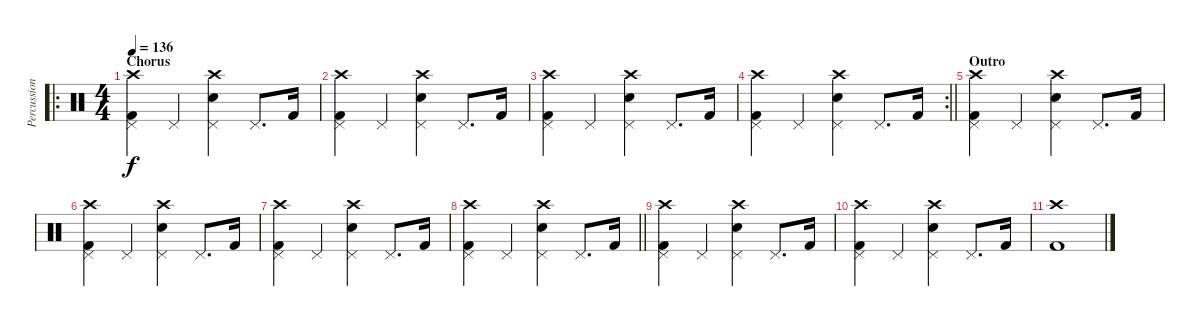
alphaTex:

\track ("Percussion" "Percussion") {instrument percussion}
\staff
\articulation defaults
\ro
\ts (4 4)
\section ("" "Chorus")
\tempo 136
\clef neutral
\ks c
("Crash high (hit)" "Pedal Hi-Hat (hit)" "Kick (hit) 2").4{dy f} "Pedal Hi-Hat (hit)".4 ("Crash high (hit)" "Snare (hit) 2" "Pedal Hi-Hat (hit)").4 "Pedal Hi-Hat (hit)".8{d} "Kick (hit) 2".16 |
("Crash high (hit)" "Pedal Hi-Hat (hit)" "Kick (hit) 2").4 "Pedal Hi-Hat (hit)".4 ("Crash high (hit)" "Snare (hit) 2" "Pedal Hi-Hat (hit)").4 "Pedal Hi-Hat (hit)".8{d} "Kick (hit) 2".16 |
("Crash high (hit)" "Pedal Hi-Hat (hit)" "Kick (hit) 2").4 "Pedal Hi-Hat (hit)".4 ("Crash high (hit)" "Snare (hit) 2" "Pedal Hi-Hat (hit)").4 "Pedal Hi-Hat (hit)".8{d} "Kick (hit) 2".16 |
\rc 2
\barLineRight lightlight
("Crash high (hit)" "Pedal Hi-Hat (hit)" "Kick (hit) 2").4 "Pedal Hi-Hat (hit)".4 ("Crash high (hit)" "Snare (hit) 2" "Pedal Hi-Hat (hit)").4 "Pedal Hi-Hat (hit)".8{d} "Kick (hit) 2".16 |
\section ("" "Outro")
("Crash high (hit)" "Pedal Hi-Hat (hit)" "Kick (hit) 2").4 "Pedal Hi-Hat (hit)".4 ("Crash high (hit)" "Snare (hit) 2" "Pedal Hi-Hat (hit)").4 "Pedal Hi-Hat (hit)".8{d} "Kick (hit) 2".16 |
("Crash high (hit)" "Pedal Hi-Hat (hit)" "Kick (hit) 2").4 "Pedal Hi-Hat (hit)".4 ("Crash high (hit)" "Snare (hit) 2" "Pedal Hi-Hat (hit)").4 "Pedal Hi-Hat (hit)".8{d} "Kick (hit) 2".16 |
("Crash high (hit)" "Pedal Hi-Hat (hit)" "Kick (hit) 2").4 "Pedal Hi-Hat (hit)".4 ("Crash high (hit)" "Snare (hit) 2" "Pedal Hi-Hat (hit)").4 "Pedal Hi-Hat (hit)".8{d} "Kick (hit) 2".16 |
\barLineRight lightlight
("Crash high (hit)" "Pedal Hi-Hat (hit)" "Kick (hit) 2").4 "Pedal Hi-Hat (hit)".4 ("Crash high (hit)" "Snare (hit) 2" "Pedal Hi-Hat (hit)").4 "Pedal Hi-Hat (hit)".8{d} "Kick (hit) 2".16 |
("Crash high (hit)" "Pedal Hi-Hat (hit)" "Kick (hit) 2").4 "Pedal Hi-Hat (hit)".4 ("Crash high (hit)" "Snare (hit) 2" "Pedal Hi-Hat (hit)").4 "Pedal Hi-Hat (hit)".8{d} "Kick (hit) 2".16 |
("Crash high (hit)" "Pedal Hi-Hat (hit)" "Kick (hit) 2").4 "Pedal Hi-Hat (hit)".4 ("Crash high (hit)" "Snare (hit) 2" "Pedal Hi-Hat (hit)").4 "Pedal Hi-Hat (hit)".8{d} "Kick (hit) 2".16 |
("Crash high (hit)" "Kick (hit) 2").1
